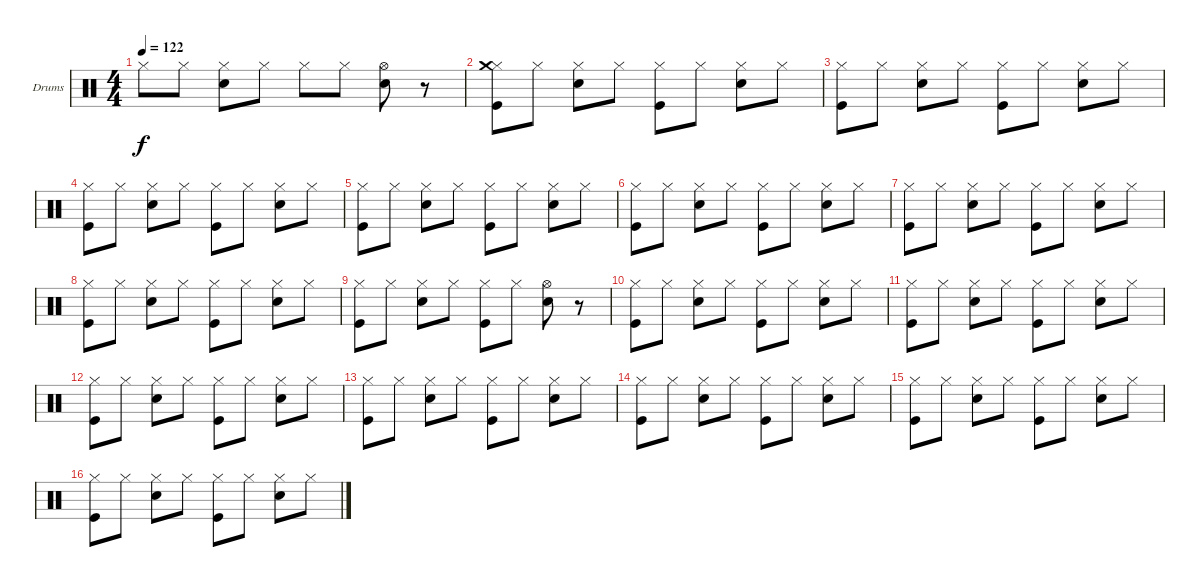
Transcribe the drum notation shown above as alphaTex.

\bracketExtendMode groupsimilarinstruments
\firstSystemTrackNameOrientation horizontal
\otherSystemsTrackNameOrientation horizontal
\track ("Drumkit" "Drums") {instrument percussion}
\staff {score}
\articulation defaults
\ts (4 4)
\tempo 122
\clef neutral
\ks c "Hi-Hat (closed)".8{dy f} "Hi-Hat (closed)".8
("Snare (hit) 2" "Hi-Hat (closed)").8 "Hi-Hat (closed)".8 "Hi-Hat (closed)".8 "Hi-Hat (closed)".8 ("Snare (hit) 2" "Hi-Hat (open)").8 r.8 |
("Kick (hit)" "Hi-Hat (closed)" "Crash medium (hit)").8 "Hi-Hat (closed)".8 ("Snare (hit) 2" "Hi-Hat (closed)").8 "Hi-Hat (closed)".8 ("Kick (hit)" "Hi-Hat (closed)").8 "Hi-Hat (closed)".8 ("Snare (hit) 2" "Hi-Hat (closed)").8 "Hi-Hat (closed)".8 |
("Kick (hit)" "Hi-Hat (closed)").8 "Hi-Hat (closed)".8 ("Snare (hit) 2" "Hi-Hat (closed)").8 "Hi-Hat (closed)".8 ("Kick (hit)" "Hi-Hat (closed)").8 "Hi-Hat (closed)".8 ("Snare (hit) 2" "Hi-Hat (closed)").8 "Hi-Hat (closed)".8 |
("Kick (hit)" "Hi-Hat (closed)").8 "Hi-Hat (closed)".8 ("Snare (hit) 2" "Hi-Hat (closed)").8 "Hi-Hat (closed)".8 ("Kick (hit)" "Hi-Hat (closed)").8 "Hi-Hat (closed)".8 ("Snare (hit) 2" "Hi-Hat (closed)").8 "Hi-Hat (closed)".8 |
("Kick (hit)" "Hi-Hat (closed)").8 "Hi-Hat (closed)".8 ("Snare (hit) 2" "Hi-Hat (closed)").8 "Hi-Hat (closed)".8 ("Kick (hit)" "Hi-Hat (closed)").8 "Hi-Hat (closed)".8 ("Snare (hit) 2" "Hi-Hat (closed)").8 "Hi-Hat (closed)".8 |
("Kick (hit)" "Hi-Hat (closed)").8 "Hi-Hat (closed)".8 ("Snare (hit) 2" "Hi-Hat (closed)").8 "Hi-Hat (closed)".8 ("Kick (hit)" "Hi-Hat (closed)").8 "Hi-Hat (closed)".8 ("Snare (hit) 2" "Hi-Hat (closed)").8 "Hi-Hat (closed)".8 |
("Kick (hit)" "Hi-Hat (closed)").8 "Hi-Hat (closed)".8 ("Snare (hit) 2" "Hi-Hat (closed)").8 "Hi-Hat (closed)".8 ("Kick (hit)" "Hi-Hat (closed)").8 "Hi-Hat (closed)".8 ("Snare (hit) 2" "Hi-Hat (closed)").8 "Hi-Hat (closed)".8 |
("Kick (hit)" "Hi-Hat (closed)").8 "Hi-Hat (closed)".8 ("Snare (hit) 2" "Hi-Hat (closed)").8 "Hi-Hat (closed)".8 ("Kick (hit)" "Hi-Hat (closed)").8 "Hi-Hat (closed)".8 ("Snare (hit) 2" "Hi-Hat (closed)").8 "Hi-Hat (closed)".8 |
("Kick (hit)" "Hi-Hat (closed)").8 "Hi-Hat (closed)".8 ("Snare (hit) 2" "Hi-Hat (closed)").8 "Hi-Hat (closed)".8 ("Kick (hit)" "Hi-Hat (closed)").8 "Hi-Hat (closed)".8 ("Snare (hit) 2" "Hi-Hat (open)").8 r.8 |
("Kick (hit)" "Hi-Hat (closed)").8 "Hi-Hat (closed)".8 ("Snare (hit) 2" "Hi-Hat (closed)").8 "Hi-Hat (closed)".8 ("Kick (hit)" "Hi-Hat (closed)").8 "Hi-Hat (closed)".8 ("Snare (hit) 2" "Hi-Hat (closed)").8 "Hi-Hat (closed)".8 |
("Kick (hit)" "Hi-Hat (closed)").8 "Hi-Hat (closed)".8 ("Snare (hit) 2" "Hi-Hat (closed)").8 "Hi-Hat (closed)".8 ("Kick (hit)" "Hi-Hat (closed)").8 "Hi-Hat (closed)".8 ("Snare (hit) 2" "Hi-Hat (closed)").8 "Hi-Hat (closed)".8 |
("Kick (hit)" "Hi-Hat (closed)").8 "Hi-Hat (closed)".8 ("Snare (hit) 2" "Hi-Hat (closed)").8 "Hi-Hat (closed)".8 ("Kick (hit)" "Hi-Hat (closed)").8 "Hi-Hat (closed)".8 ("Snare (hit) 2" "Hi-Hat (closed)").8 "Hi-Hat (closed)".8 |
("Kick (hit)" "Hi-Hat (closed)").8 "Hi-Hat (closed)".8 ("Snare (hit) 2" "Hi-Hat (closed)").8 "Hi-Hat (closed)".8 ("Kick (hit)" "Hi-Hat (closed)").8 "Hi-Hat (closed)".8 ("Snare (hit) 2" "Hi-Hat (closed)").8 "Hi-Hat (closed)".8 |
("Kick (hit)" "Hi-Hat (closed)").8 "Hi-Hat (closed)".8 ("Snare (hit) 2" "Hi-Hat (closed)").8 "Hi-Hat (closed)".8 ("Kick (hit)" "Hi-Hat (closed)").8 "Hi-Hat (closed)".8 ("Snare (hit) 2" "Hi-Hat (closed)").8 "Hi-Hat (closed)".8 |
("Kick (hit)" "Hi-Hat (closed)").8 "Hi-Hat (closed)".8 ("Snare (hit) 2" "Hi-Hat (closed)").8 "Hi-Hat (closed)".8 ("Kick (hit)" "Hi-Hat (closed)").8 "Hi-Hat (closed)".8 ("Snare (hit) 2" "Hi-Hat (closed)").8 "Hi-Hat (closed)".8 |
("Kick (hit)" "Hi-Hat (closed)").8 "Hi-Hat (closed)".8 ("Snare (hit) 2" "Hi-Hat (closed)").8 "Hi-Hat (closed)".8 ("Kick (hit)" "Hi-Hat (closed)").8 "Hi-Hat (closed)".8 ("Snare (hit) 2" "Hi-Hat (closed)").8 "Hi-Hat (closed)".8
